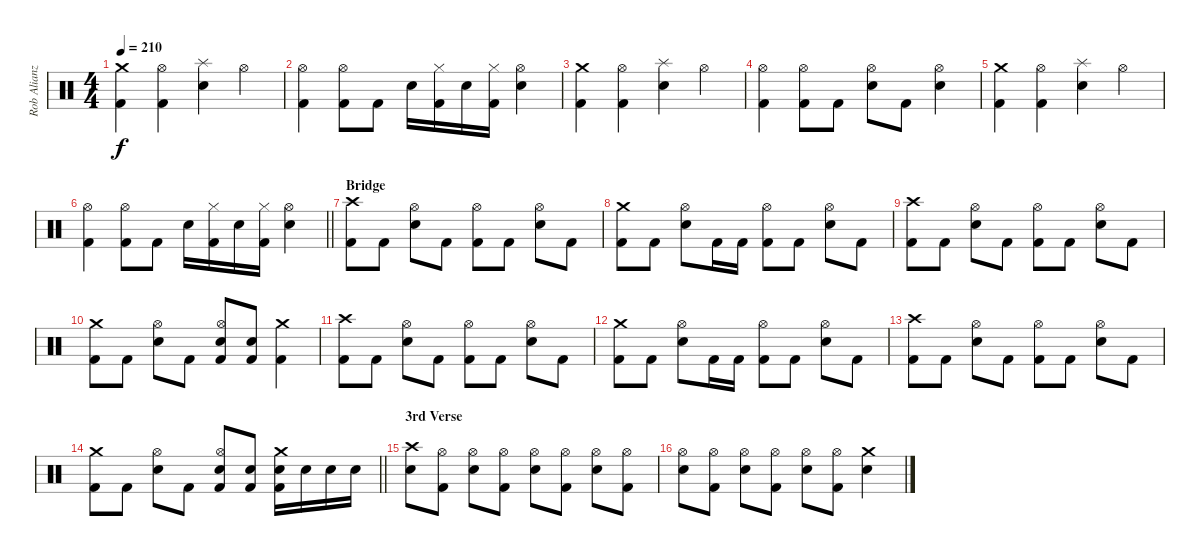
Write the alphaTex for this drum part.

\track ("Rob Alianz" "Rob Alianz") {instrument percussion}
\staff {score}
\articulation defaults
\ts (4 4)
\tempo 210
\clef neutral
\ks c
("Crash medium (hit)" "Kick (hit) 2").4{dy f} ("Hi-Hat (open)" "Kick (hit) 2").4 ("Splash (hit)" "Electric Snare (hit)").4 "Hi-Hat (open)".4 |
("Hi-Hat (open)" "Kick (hit) 2").4 ("Hi-Hat (open)" "Kick (hit) 2").8 "Kick (hit) 2".8 "Electric Snare (hit)".16 ("Hi-Hat (closed)" "Kick (hit) 2").16 "Electric Snare (hit)".16 ("Hi-Hat (closed)" "Kick (hit) 2").16 ("Hi-Hat (open)" "Electric Snare (hit)").4 |
("Crash medium (hit)" "Kick (hit) 2").4 ("Hi-Hat (open)" "Kick (hit) 2").4 ("Splash (hit)" "Electric Snare (hit)").4 "Hi-Hat (open)".4 |
("Hi-Hat (open)" "Kick (hit) 2").4 ("Hi-Hat (open)" "Kick (hit) 2").8 "Kick (hit) 2".8 ("Hi-Hat (open)" "Electric Snare (hit)").8 "Kick (hit) 2".8 ("Hi-Hat (open)" "Electric Snare (hit)").4 |
("Crash medium (hit)" "Kick (hit) 2").4 ("Hi-Hat (open)" "Kick (hit) 2").4 ("Splash (hit)" "Electric Snare (hit)").4 "Hi-Hat (open)".4 |
\barLineRight lightlight
("Hi-Hat (open)" "Kick (hit) 2").4 ("Hi-Hat (open)" "Kick (hit) 2").8 "Kick (hit) 2".8 "Electric Snare (hit)".16 ("Hi-Hat (closed)" "Kick (hit) 2").16 "Electric Snare (hit)".16 ("Hi-Hat (closed)" "Kick (hit) 2").16 ("Hi-Hat (open)" "Electric Snare (hit)").4 |
\section ("" "Bridge")
("Crash high (hit)" "Kick (hit) 2").8 "Kick (hit) 2".8 ("Hi-Hat (open)" "Electric Snare (hit)").8 "Kick (hit) 2".8 ("Hi-Hat (open)" "Kick (hit) 2").8 "Kick (hit) 2".8 ("Hi-Hat (open)" "Electric Snare (hit)").8 "Kick (hit) 2".8 |
("Crash medium (hit)" "Kick (hit) 2").8 "Kick (hit) 2".8 ("Hi-Hat (open)" "Electric Snare (hit)").8 "Kick (hit) 2".16 "Kick (hit) 2".16 ("Hi-Hat (open)" "Kick (hit) 2").8 "Kick (hit) 2".8 ("Hi-Hat (open)" "Electric Snare (hit)").8 "Kick (hit) 2".8 |
("Crash high (hit)" "Kick (hit) 2").8 "Kick (hit) 2".8 ("Hi-Hat (open)" "Electric Snare (hit)").8 "Kick (hit) 2".8 ("Hi-Hat (open)" "Kick (hit) 2").8 "Kick (hit) 2".8 ("Hi-Hat (open)" "Electric Snare (hit)").8 "Kick (hit) 2".8 |
("Crash medium (hit)" "Kick (hit) 2").8 "Kick (hit) 2".8 ("Hi-Hat (open)" "Electric Snare (hit)").8 "Kick (hit) 2".8 ("Hi-Hat (open)" "Electric Snare (hit)" "Kick (hit) 2").8 ("Electric Snare (hit)" "Kick (hit) 2").8 ("Crash medium (hit)" "Kick (hit) 2").4 |
("Crash high (hit)" "Kick (hit) 2").8 "Kick (hit) 2".8 ("Hi-Hat (open)" "Electric Snare (hit)").8 "Kick (hit) 2".8 ("Hi-Hat (open)" "Kick (hit) 2").8 "Kick (hit) 2".8 ("Hi-Hat (open)" "Electric Snare (hit)").8 "Kick (hit) 2".8 |
("Crash medium (hit)" "Kick (hit) 2").8 "Kick (hit) 2".8 ("Hi-Hat (open)" "Electric Snare (hit)").8 "Kick (hit) 2".16 "Kick (hit) 2".16 ("Hi-Hat (open)" "Kick (hit) 2").8 "Kick (hit) 2".8 ("Hi-Hat (open)" "Electric Snare (hit)").8 "Kick (hit) 2".8 |
("Crash high (hit)" "Kick (hit) 2").8 "Kick (hit) 2".8 ("Hi-Hat (open)" "Electric Snare (hit)").8 "Kick (hit) 2".8 ("Hi-Hat (open)" "Kick (hit) 2").8 "Kick (hit) 2".8 ("Hi-Hat (open)" "Electric Snare (hit)").8 "Kick (hit) 2".8 |
\barLineRight lightlight
("Crash medium (hit)" "Kick (hit) 2").8 "Kick (hit) 2".8 ("Hi-Hat (open)" "Electric Snare (hit)").8 "Kick (hit) 2".8 ("Hi-Hat (open)" "Electric Snare (hit)" "Kick (hit) 2").8 ("Electric Snare (hit)" "Kick (hit) 2").8 ("Crash medium (hit)" "Electric Snare (hit)" "Kick (hit) 2").16 "Electric Snare (hit)".16 "Electric Snare (hit)".16 "Electric Snare (hit)".16 |
\section ("" "3rd Verse")
("Crash high (hit)" "Electric Snare (hit)").8 ("Hi-Hat (open)" "Kick (hit) 2").8 ("Hi-Hat (open)" "Electric Snare (hit)").8 ("Hi-Hat (open)" "Kick (hit) 2").8 ("Hi-Hat (open)" "Electric Snare (hit)").8 ("Hi-Hat (open)" "Kick (hit) 2").8 ("Hi-Hat (open)" "Electric Snare (hit)").8 ("Hi-Hat (open)" "Kick (hit) 2").8 |
("Hi-Hat (open)" "Electric Snare (hit)").8 ("Hi-Hat (open)" "Kick (hit) 2").8 ("Hi-Hat (open)" "Electric Snare (hit)").8 ("Hi-Hat (open)" "Kick (hit) 2").8 ("Hi-Hat (open)" "Electric Snare (hit)").8 ("Hi-Hat (open)" "Kick (hit) 2").8 ("Crash medium (hit)" "Electric Snare (hit)").4
